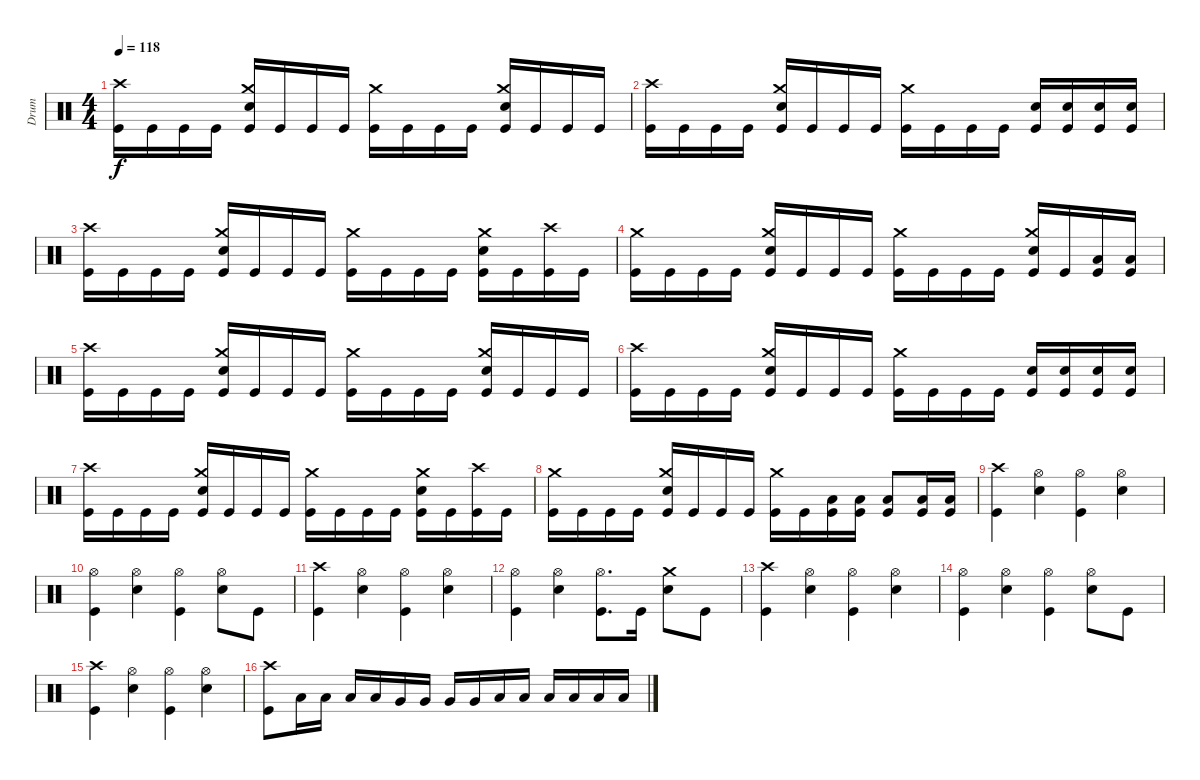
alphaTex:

\track ("Drum" "Drum") {instrument percussion}
\staff {score}
\articulation defaults
\ts (4 4)
\tempo 118
\clef neutral
\ks c
("Kick (hit)" "Crash high (hit)").16{dy f} "Kick (hit)".16 "Kick (hit)".16 "Kick (hit)".16 ("Kick (hit)" "Crash medium (hit)" "Snare (hit) 2").16 "Kick (hit)".16 "Kick (hit)".16 "Kick (hit)".16 ("Kick (hit)" "Crash medium (hit)").16 "Kick (hit)".16 "Kick (hit)".16 "Kick (hit)".16 ("Kick (hit)" "Crash medium (hit)" "Snare (hit) 2").16 "Kick (hit)".16 "Kick (hit)".16 "Kick (hit)".16 |
("Kick (hit)" "Crash high (hit)").16 "Kick (hit)".16 "Kick (hit)".16 "Kick (hit)".16 ("Kick (hit)" "Crash medium (hit)" "Snare (hit) 2").16 "Kick (hit)".16 "Kick (hit)".16 "Kick (hit)".16 ("Kick (hit)" "Crash medium (hit)").16 "Kick (hit)".16 "Kick (hit)".16 "Kick (hit)".16 ("Kick (hit)" "Snare (hit) 2").16 ("Kick (hit)" "Snare (hit) 2").16 ("Kick (hit)" "Snare (hit) 2").16 ("Kick (hit)" "Snare (hit) 2").16 |
("Kick (hit)" "Crash high (hit)").16 "Kick (hit)".16 "Kick (hit)".16 "Kick (hit)".16 ("Kick (hit)" "Crash medium (hit)" "Snare (hit) 2").16 "Kick (hit)".16 "Kick (hit)".16 "Kick (hit)".16 ("Kick (hit)" "Crash medium (hit)").16 "Kick (hit)".16 "Kick (hit)".16 "Kick (hit)".16 ("Kick (hit)" "Crash medium (hit)" "Snare (hit) 2").16 "Kick (hit)".16 ("Kick (hit)" "Crash high (hit)").16 "Kick (hit)".16 |
("Kick (hit)" "Crash medium (hit)").16 "Kick (hit)".16 "Kick (hit)".16 "Kick (hit)".16 ("Kick (hit)" "Crash medium (hit)" "Snare (hit) 2").16 "Kick (hit)".16 "Kick (hit)".16 "Kick (hit)".16 ("Kick (hit)" "Crash medium (hit)").16 "Kick (hit)".16 "Kick (hit)".16 "Kick (hit)".16 ("Kick (hit)" "Crash medium (hit)" "Snare (hit) 2").16 "Kick (hit)".16 ("Kick (hit)" "Low Floor Tom (hit)").16 ("Kick (hit)" "Low Floor Tom (hit)").16 |
("Kick (hit)" "Crash high (hit)").16 "Kick (hit)".16 "Kick (hit)".16 "Kick (hit)".16 ("Kick (hit)" "Crash medium (hit)" "Snare (hit) 2").16 "Kick (hit)".16 "Kick (hit)".16 "Kick (hit)".16 ("Kick (hit)" "Crash medium (hit)").16 "Kick (hit)".16 "Kick (hit)".16 "Kick (hit)".16 ("Kick (hit)" "Crash medium (hit)" "Snare (hit) 2").16 "Kick (hit)".16 "Kick (hit)".16 "Kick (hit)".16 |
("Kick (hit)" "Crash high (hit)").16 "Kick (hit)".16 "Kick (hit)".16 "Kick (hit)".16 ("Kick (hit)" "Crash medium (hit)" "Snare (hit) 2").16 "Kick (hit)".16 "Kick (hit)".16 "Kick (hit)".16 ("Kick (hit)" "Crash medium (hit)").16 "Kick (hit)".16 "Kick (hit)".16 "Kick (hit)".16 ("Kick (hit)" "Snare (hit) 2").16 ("Kick (hit)" "Snare (hit) 2").16 ("Kick (hit)" "Snare (hit) 2").16 ("Kick (hit)" "Snare (hit) 2").16 |
("Kick (hit)" "Crash high (hit)").16 "Kick (hit)".16 "Kick (hit)".16 "Kick (hit)".16 ("Kick (hit)" "Crash medium (hit)" "Snare (hit) 2").16 "Kick (hit)".16 "Kick (hit)".16 "Kick (hit)".16 ("Kick (hit)" "Crash medium (hit)").16 "Kick (hit)".16 "Kick (hit)".16 "Kick (hit)".16 ("Kick (hit)" "Crash medium (hit)" "Snare (hit) 2").16 "Kick (hit)".16 ("Kick (hit)" "Crash high (hit)").16 "Kick (hit)".16 |
("Kick (hit)" "Crash medium (hit)").16 "Kick (hit)".16 "Kick (hit)".16 "Kick (hit)".16 ("Kick (hit)" "Crash medium (hit)" "Snare (hit) 2").16 "Kick (hit)".16 "Kick (hit)".16 "Kick (hit)".16 ("Kick (hit)" "Crash medium (hit)").16 "Kick (hit)".16 ("Kick (hit)" "Low Floor Tom (hit)").16 ("Kick (hit)" "Low Floor Tom (hit)").16 ("Kick (hit)" "Low Floor Tom (hit)").8 ("Kick (hit)" "Low Floor Tom (hit)").16 ("Kick (hit)" "Low Floor Tom (hit)").16 |
("Kick (hit)" "Crash high (hit)").4 ("Hi-Hat (open)" "Snare (hit) 2").4 ("Kick (hit)" "Hi-Hat (open)").4 ("Hi-Hat (open)" "Snare (hit) 2").4 |
("Kick (hit)" "Hi-Hat (open)").4 ("Hi-Hat (open)" "Snare (hit) 2").4 ("Kick (hit)" "Hi-Hat (open)").4 ("Hi-Hat (open)" "Snare (hit) 2").8 "Kick (hit)".8 |
("Kick (hit)" "Crash high (hit)").4 ("Hi-Hat (open)" "Snare (hit) 2").4 ("Kick (hit)" "Hi-Hat (open)").4 ("Hi-Hat (open)" "Snare (hit) 2").4 |
("Kick (hit)" "Hi-Hat (open)").4 ("Hi-Hat (open)" "Snare (hit) 2").4 ("Kick (hit)" "Hi-Hat (open)").8{d} "Kick (hit)".16 ("Crash medium (hit)" "Snare (hit) 2").8 "Kick (hit)".8 |
("Kick (hit)" "Crash high (hit)").4 ("Hi-Hat (open)" "Snare (hit) 2").4 ("Kick (hit)" "Hi-Hat (open)").4 ("Hi-Hat (open)" "Snare (hit) 2").4 |
("Kick (hit)" "Hi-Hat (open)").4 ("Hi-Hat (open)" "Snare (hit) 2").4 ("Kick (hit)" "Hi-Hat (open)").4 ("Hi-Hat (open)" "Snare (hit) 2").8 "Kick (hit)".8 |
("Kick (hit)" "Crash high (hit)").4 ("Hi-Hat (open)" "Snare (hit) 2").4 ("Kick (hit)" "Hi-Hat (open)").4 ("Hi-Hat (open)" "Snare (hit) 2").4 |
("Kick (hit)" "Crash high (hit)").8 "Low Tom (hit)".16 "Low Tom (hit)".16 "Low Tom (hit)".16 "Low Tom (hit)".16 "Very Low Tom (hit)".16 "Very Low Tom (hit)".16 "Very Low Tom (hit)".16 "Very Low Tom (hit)".16 "Low Floor Tom (hit)".16 "Low Floor Tom (hit)".16 "Low Floor Tom (hit)".16 "Low Floor Tom (hit)".16 "Low Floor Tom (hit)".16 "Low Floor Tom (hit)".16
